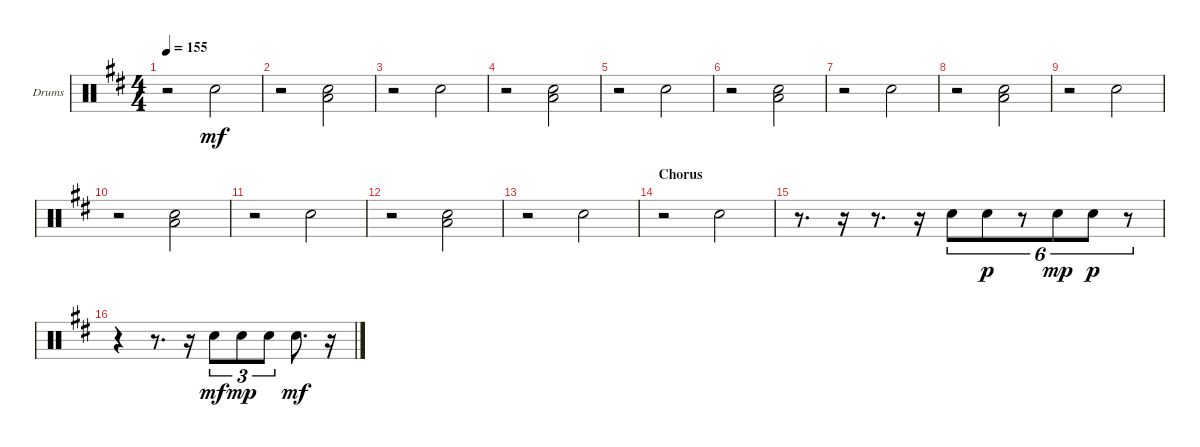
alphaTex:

\bracketExtendMode groupsimilarinstruments
\firstSystemTrackNameOrientation horizontal
\otherSystemsTrackNameOrientation horizontal
\track ("Drums" "Drums") {instrument percussion}
\staff {score}
\articulation defaults
\ts (4 4)
\tempo 155
\clef neutral
\ks d
r.2{dy mf} "Snare (hit) 2".2 |
r.2 ("Snare (hit) 2" "Low Tom (hit)").2 |
r.2 "Snare (hit) 2".2 |
r.2 ("Snare (hit) 2" "Low Tom (hit)").2 |
r.2 "Snare (hit) 2".2 |
r.2 ("Snare (hit) 2" "Low Tom (hit)").2 |
r.2 "Snare (hit) 2".2 |
r.2 ("Snare (hit) 2" "Low Tom (hit)").2 |
r.2 "Snare (hit) 2".2 |
r.2 ("Snare (hit) 2" "Low Tom (hit)").2 |
r.2 "Snare (hit) 2".2 |
r.2 ("Snare (hit) 2" "Low Tom (hit)").2 |
r.2 "Snare (hit) 2".2 |
\section ("" "Chorus")
r.2 "Snare (hit) 2".2 |
r.8{d} r.16 r.8{d} r.16 "Snare (hit) 2".8{tu (6 4)} "Snare (hit) 2".8{tu (6 4) dy p} r.8{tu (6 4)} "Snare (hit) 2".8{tu (6 4) dy mp} "Snare (hit) 2".8{tu (6 4) dy p} r.8{tu (6 4)} |
r.4 r.8{d} r.16 "Snare (hit) 2".8{tu (3 2) dy mf} "Snare (hit) 2".8{tu (3 2) dy mp} "Snare (hit) 2".8{tu (3 2)} "Snare (hit) 2".8{d dy mf} r.16
